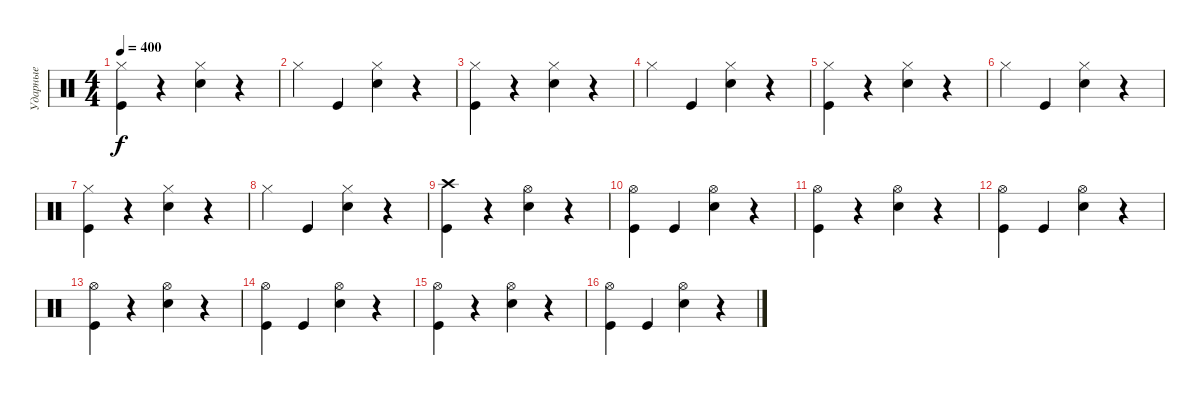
\track ("Ударные" "Ударные") {instrument percussion}
\staff {score}
\articulation defaults
\ts (4 4)
\tempo 400
\clef neutral
\ks c
("Kick (hit)" "Hi-Hat (closed)").4{dy f} r.4 ("Snare (hit) 2" "Hi-Hat (closed)").4 r.4 |
"Hi-Hat (closed)".4 "Kick (hit)".4 ("Snare (hit) 2" "Hi-Hat (closed)").4 r.4 |
("Kick (hit)" "Hi-Hat (closed)").4 r.4 ("Snare (hit) 2" "Hi-Hat (closed)").4 r.4 |
"Hi-Hat (closed)".4 "Kick (hit)".4 ("Snare (hit) 2" "Hi-Hat (closed)").4 r.4 |
("Kick (hit)" "Hi-Hat (closed)").4 r.4 ("Snare (hit) 2" "Hi-Hat (closed)").4 r.4 |
"Hi-Hat (closed)".4 "Kick (hit)".4 ("Snare (hit) 2" "Hi-Hat (closed)").4 r.4 |
("Kick (hit)" "Hi-Hat (closed)").4 r.4 ("Snare (hit) 2" "Hi-Hat (closed)").4 r.4 |
"Hi-Hat (closed)".4 "Kick (hit)".4 ("Snare (hit) 2" "Hi-Hat (closed)").4 r.4 |
("Kick (hit)" "Crash high (hit)").4 r.4 ("Snare (hit) 2" "Hi-Hat (open)").4 r.4 |
("Kick (hit)" "Hi-Hat (open)").4 "Kick (hit)".4 ("Snare (hit) 2" "Hi-Hat (open)").4 r.4 |
("Kick (hit)" "Hi-Hat (open)").4 r.4 ("Snare (hit) 2" "Hi-Hat (open)").4 r.4 |
("Kick (hit)" "Hi-Hat (open)").4 "Kick (hit)".4 ("Snare (hit) 2" "Hi-Hat (open)").4 r.4 |
("Kick (hit)" "Hi-Hat (open)").4 r.4 ("Snare (hit) 2" "Hi-Hat (open)").4 r.4 |
("Kick (hit)" "Hi-Hat (open)").4 "Kick (hit)".4 ("Snare (hit) 2" "Hi-Hat (open)").4 r.4 |
("Kick (hit)" "Hi-Hat (open)").4 r.4 ("Snare (hit) 2" "Hi-Hat (open)").4 r.4 |
("Kick (hit)" "Hi-Hat (open)").4 "Kick (hit)".4 ("Snare (hit) 2" "Hi-Hat (open)").4 r.4
